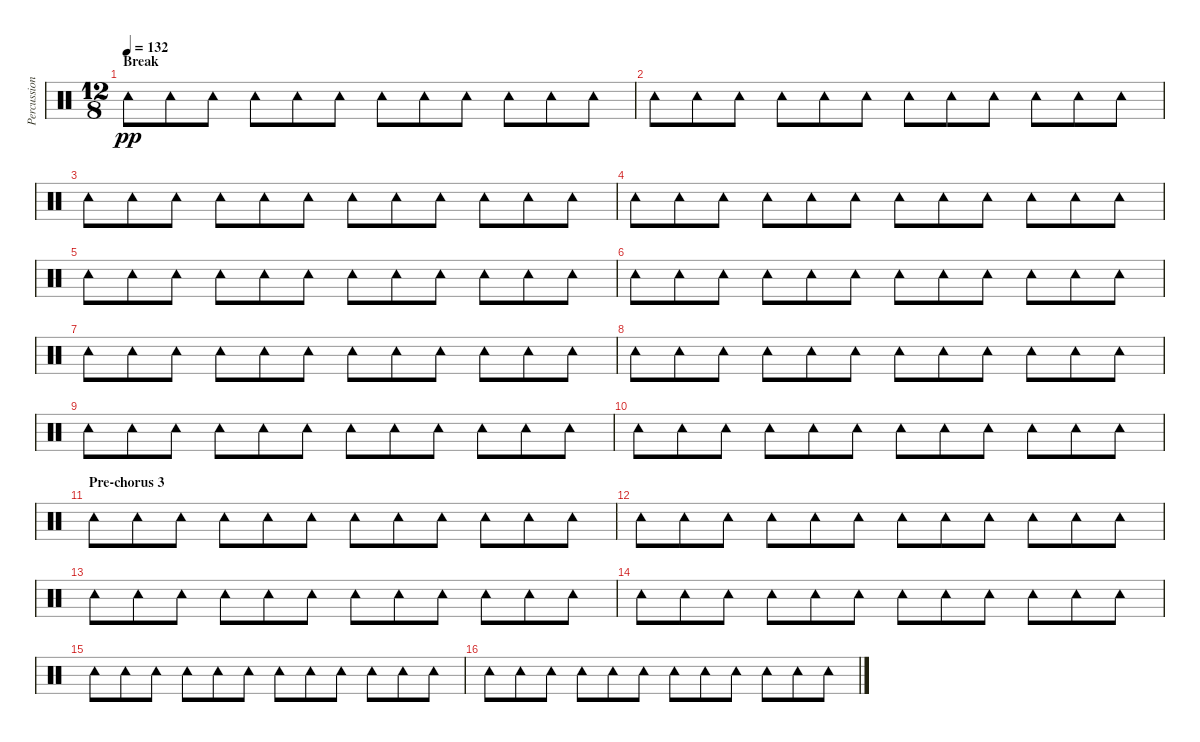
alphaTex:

\track ("Percussion" "Percussion") {instrument percussion}
\staff {score}
\articulation defaults
\ts (12 8)
\section ("" "Break")
\tempo 132
\clef neutral
\ks c "Tambourine (hit)".8{dy pp} "Tambourine (hit)".8 "Tambourine (hit)".8 "Tambourine (hit)".8 "Tambourine (hit)".8 "Tambourine (hit)".8 "Tambourine (hit)".8 "Tambourine (hit)".8 "Tambourine (hit)".8 "Tambourine (hit)".8 "Tambourine (hit)".8 "Tambourine (hit)".8
|
"Tambourine (hit)".8 "Tambourine (hit)".8 "Tambourine (hit)".8 "Tambourine (hit)".8 "Tambourine (hit)".8 "Tambourine (hit)".8 "Tambourine (hit)".8 "Tambourine (hit)".8 "Tambourine (hit)".8 "Tambourine (hit)".8 "Tambourine (hit)".8 "Tambourine (hit)".8 |
"Tambourine (hit)".8 "Tambourine (hit)".8 "Tambourine (hit)".8 "Tambourine (hit)".8 "Tambourine (hit)".8 "Tambourine (hit)".8 "Tambourine (hit)".8 "Tambourine (hit)".8 "Tambourine (hit)".8 "Tambourine (hit)".8 "Tambourine (hit)".8 "Tambourine (hit)".8 |
"Tambourine (hit)".8 "Tambourine (hit)".8 "Tambourine (hit)".8 "Tambourine (hit)".8 "Tambourine (hit)".8 "Tambourine (hit)".8 "Tambourine (hit)".8 "Tambourine (hit)".8 "Tambourine (hit)".8 "Tambourine (hit)".8 "Tambourine (hit)".8 "Tambourine (hit)".8 |
"Tambourine (hit)".8 "Tambourine (hit)".8 "Tambourine (hit)".8 "Tambourine (hit)".8 "Tambourine (hit)".8 "Tambourine (hit)".8 "Tambourine (hit)".8 "Tambourine (hit)".8 "Tambourine (hit)".8 "Tambourine (hit)".8 "Tambourine (hit)".8 "Tambourine (hit)".8 |
"Tambourine (hit)".8 "Tambourine (hit)".8 "Tambourine (hit)".8 "Tambourine (hit)".8 "Tambourine (hit)".8 "Tambourine (hit)".8 "Tambourine (hit)".8 "Tambourine (hit)".8 "Tambourine (hit)".8 "Tambourine (hit)".8 "Tambourine (hit)".8 "Tambourine (hit)".8 |
"Tambourine (hit)".8 "Tambourine (hit)".8 "Tambourine (hit)".8 "Tambourine (hit)".8 "Tambourine (hit)".8 "Tambourine (hit)".8 "Tambourine (hit)".8 "Tambourine (hit)".8 "Tambourine (hit)".8 "Tambourine (hit)".8 "Tambourine (hit)".8 "Tambourine (hit)".8 |
"Tambourine (hit)".8 "Tambourine (hit)".8 "Tambourine (hit)".8 "Tambourine (hit)".8 "Tambourine (hit)".8 "Tambourine (hit)".8 "Tambourine (hit)".8 "Tambourine (hit)".8 "Tambourine (hit)".8 "Tambourine (hit)".8 "Tambourine (hit)".8 "Tambourine (hit)".8 |
"Tambourine (hit)".8 "Tambourine (hit)".8 "Tambourine (hit)".8 "Tambourine (hit)".8 "Tambourine (hit)".8 "Tambourine (hit)".8 "Tambourine (hit)".8 "Tambourine (hit)".8 "Tambourine (hit)".8 "Tambourine (hit)".8 "Tambourine (hit)".8 "Tambourine (hit)".8 |
"Tambourine (hit)".8 "Tambourine (hit)".8 "Tambourine (hit)".8 "Tambourine (hit)".8 "Tambourine (hit)".8 "Tambourine (hit)".8 "Tambourine (hit)".8 "Tambourine (hit)".8 "Tambourine (hit)".8 "Tambourine (hit)".8 "Tambourine (hit)".8 "Tambourine (hit)".8 |
\section ("" "Pre-chorus 3")
"Tambourine (hit)".8 "Tambourine (hit)".8 "Tambourine (hit)".8 "Tambourine (hit)".8 "Tambourine (hit)".8 "Tambourine (hit)".8 "Tambourine (hit)".8 "Tambourine (hit)".8 "Tambourine (hit)".8 "Tambourine (hit)".8 "Tambourine (hit)".8 "Tambourine (hit)".8 |
"Tambourine (hit)".8 "Tambourine (hit)".8 "Tambourine (hit)".8 "Tambourine (hit)".8 "Tambourine (hit)".8 "Tambourine (hit)".8 "Tambourine (hit)".8 "Tambourine (hit)".8 "Tambourine (hit)".8 "Tambourine (hit)".8 "Tambourine (hit)".8 "Tambourine (hit)".8 |
"Tambourine (hit)".8 "Tambourine (hit)".8 "Tambourine (hit)".8 "Tambourine (hit)".8 "Tambourine (hit)".8 "Tambourine (hit)".8 "Tambourine (hit)".8 "Tambourine (hit)".8 "Tambourine (hit)".8 "Tambourine (hit)".8 "Tambourine (hit)".8 "Tambourine (hit)".8 |
"Tambourine (hit)".8 "Tambourine (hit)".8 "Tambourine (hit)".8 "Tambourine (hit)".8 "Tambourine (hit)".8 "Tambourine (hit)".8 "Tambourine (hit)".8 "Tambourine (hit)".8 "Tambourine (hit)".8 "Tambourine (hit)".8 "Tambourine (hit)".8 "Tambourine (hit)".8 |
"Tambourine (hit)".8 "Tambourine (hit)".8 "Tambourine (hit)".8 "Tambourine (hit)".8 "Tambourine (hit)".8 "Tambourine (hit)".8 "Tambourine (hit)".8 "Tambourine (hit)".8 "Tambourine (hit)".8 "Tambourine (hit)".8 "Tambourine (hit)".8 "Tambourine (hit)".8 |
"Tambourine (hit)".8 "Tambourine (hit)".8 "Tambourine (hit)".8 "Tambourine (hit)".8 "Tambourine (hit)".8 "Tambourine (hit)".8 "Tambourine (hit)".8 "Tambourine (hit)".8 "Tambourine (hit)".8 "Tambourine (hit)".8 "Tambourine (hit)".8 "Tambourine (hit)".8
